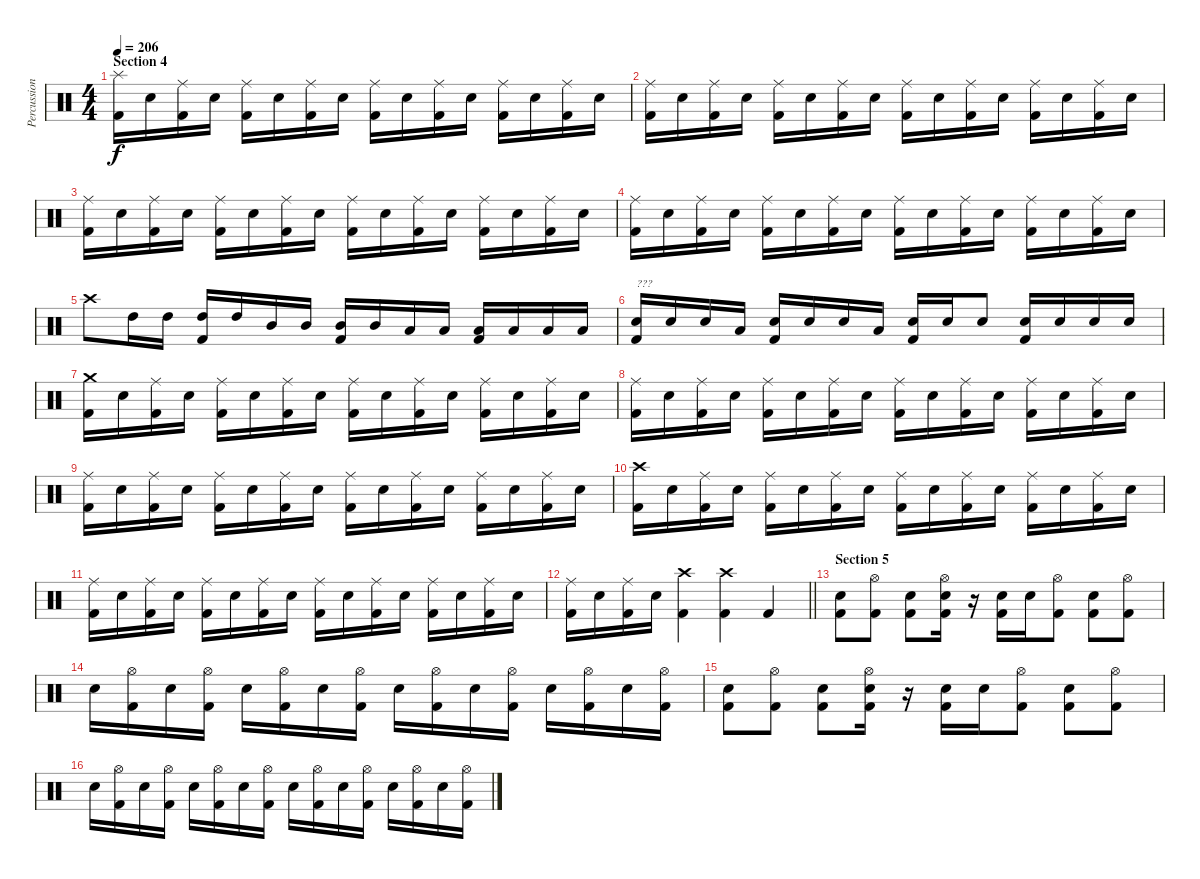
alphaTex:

\track ("Percussion" "Percussion") {instrument percussion}
\staff {score}
\articulation defaults
\ts (4 4)
\section ("" "Section 4")
\tempo 206
\clef neutral
\ks c
("Splash (hit)" "Kick (hit) 2").16{dy f} "Electric Snare (hit)".16 ("Ride (middle)" "Kick (hit) 2").16 "Electric Snare (hit)".16 ("Ride (middle)" "Kick (hit) 2").16 "Electric Snare (hit)".16 ("Ride (middle)" "Kick (hit) 2").16 "Electric Snare (hit)".16 ("Ride (middle)" "Kick (hit) 2").16 "Electric Snare (hit)".16 ("Ride (middle)" "Kick (hit) 2").16 "Electric Snare (hit)".16 ("Ride (middle)" "Kick (hit) 2").16 "Electric Snare (hit)".16 ("Ride (middle)" "Kick (hit) 2").16 "Electric Snare (hit)".16 |
("Ride (middle)" "Kick (hit) 2").16 "Electric Snare (hit)".16 ("Ride (middle)" "Kick (hit) 2").16 "Electric Snare (hit)".16 ("Ride (middle)" "Kick (hit) 2").16 "Electric Snare (hit)".16 ("Ride (middle)" "Kick (hit) 2").16 "Electric Snare (hit)".16 ("Ride (middle)" "Kick (hit) 2").16 "Electric Snare (hit)".16 ("Ride (middle)" "Kick (hit) 2").16 "Electric Snare (hit)".16 ("Ride (middle)" "Kick (hit) 2").16 "Electric Snare (hit)".16 ("Ride (middle)" "Kick (hit) 2").16 "Electric Snare (hit)".16 |
("Ride (middle)" "Kick (hit) 2").16 "Electric Snare (hit)".16 ("Ride (middle)" "Kick (hit) 2").16 "Electric Snare (hit)".16 ("Ride (middle)" "Kick (hit) 2").16 "Electric Snare (hit)".16 ("Ride (middle)" "Kick (hit) 2").16 "Electric Snare (hit)".16 ("Ride (middle)" "Kick (hit) 2").16 "Electric Snare (hit)".16 ("Ride (middle)" "Kick (hit) 2").16 "Electric Snare (hit)".16 ("Ride (middle)" "Kick (hit) 2").16 "Electric Snare (hit)".16 ("Ride (middle)" "Kick (hit) 2").16 "Electric Snare (hit)".16 |
("Ride (middle)" "Kick (hit) 2").16 "Electric Snare (hit)".16 ("Ride (middle)" "Kick (hit) 2").16 "Electric Snare (hit)".16 ("Ride (middle)" "Kick (hit) 2").16 "Electric Snare (hit)".16 ("Ride (middle)" "Kick (hit) 2").16 "Electric Snare (hit)".16 ("Ride (middle)" "Kick (hit) 2").16 "Electric Snare (hit)".16 ("Ride (middle)" "Kick (hit) 2").16 "Electric Snare (hit)".16 ("Ride (middle)" "Kick (hit) 2").16 "Electric Snare (hit)".16 ("Ride (middle)" "Kick (hit) 2").16 "Electric Snare (hit)".16 |
"Crash high (hit)".8 "High Tom (hit)".16 "High Tom (hit)".16 ("High Tom (hit)" "Kick (hit) 2").16 "High Tom (hit)".16 "Mid Tom (hit)".16 "Mid Tom (hit)".16 ("Mid Tom (hit)" "Kick (hit) 2").16 "Mid Tom (hit)".16 "Low Tom (hit)".16 "Low Tom (hit)".16 ("Low Tom (hit)" "Kick (hit) 2").16 "Low Tom (hit)".16 "Low Tom (hit)".16 "Low Tom (hit)".16 |
("Electric Snare (hit)" "Kick (hit) 2").16{txt "???"} "Electric Snare (hit)".16 "Electric Snare (hit)".16 "Low Tom (hit)".16 ("Electric Snare (hit)" "Kick (hit) 2").16 "Electric Snare (hit)".16 "Electric Snare (hit)".16 "Low Tom (hit)".16 ("Electric Snare (hit)" "Kick (hit) 2").16 "Electric Snare (hit)".16 "Electric Snare (hit)".8 ("Electric Snare (hit)" "Kick (hit) 2").16 "Electric Snare (hit)".16 "Electric Snare (hit)".16 "Electric Snare (hit)".16 |
("Crash medium (hit)" "Kick (hit) 2").16 "Electric Snare (hit)".16 ("Ride (middle)" "Kick (hit) 2").16 "Electric Snare (hit)".16 ("Ride (middle)" "Kick (hit) 2").16 "Electric Snare (hit)".16 ("Ride (middle)" "Kick (hit) 2").16 "Electric Snare (hit)".16 ("Ride (middle)" "Kick (hit) 2").16 "Electric Snare (hit)".16 ("Ride (middle)" "Kick (hit) 2").16 "Electric Snare (hit)".16 ("Ride (middle)" "Kick (hit) 2").16 "Electric Snare (hit)".16 ("Ride (middle)" "Kick (hit) 2").16 "Electric Snare (hit)".16 |
("Ride (middle)" "Kick (hit) 2").16 "Electric Snare (hit)".16 ("Ride (middle)" "Kick (hit) 2").16 "Electric Snare (hit)".16 ("Ride (middle)" "Kick (hit) 2").16 "Electric Snare (hit)".16 ("Ride (middle)" "Kick (hit) 2").16 "Electric Snare (hit)".16 ("Ride (middle)" "Kick (hit) 2").16 "Electric Snare (hit)".16 ("Ride (middle)" "Kick (hit) 2").16 "Electric Snare (hit)".16 ("Ride (middle)" "Kick (hit) 2").16 "Electric Snare (hit)".16 ("Ride (middle)" "Kick (hit) 2").16 "Electric Snare (hit)".16 |
("Ride (middle)" "Kick (hit) 2").16 "Electric Snare (hit)".16 ("Ride (middle)" "Kick (hit) 2").16 "Electric Snare (hit)".16 ("Ride (middle)" "Kick (hit) 2").16 "Electric Snare (hit)".16 ("Ride (middle)" "Kick (hit) 2").16 "Electric Snare (hit)".16 ("Ride (middle)" "Kick (hit) 2").16 "Electric Snare (hit)".16 ("Ride (middle)" "Kick (hit) 2").16 "Electric Snare (hit)".16 ("Ride (middle)" "Kick (hit) 2").16 "Electric Snare (hit)".16 ("Ride (middle)" "Kick (hit) 2").16 "Electric Snare (hit)".16 |
("Crash high (hit)" "Kick (hit) 2").16 "Electric Snare (hit)".16 ("Ride (middle)" "Kick (hit) 2").16 "Electric Snare (hit)".16 ("Ride (middle)" "Kick (hit) 2").16 "Electric Snare (hit)".16 ("Ride (middle)" "Kick (hit) 2").16 "Electric Snare (hit)".16 ("Ride (middle)" "Kick (hit) 2").16 "Electric Snare (hit)".16 ("Ride (middle)" "Kick (hit) 2").16 "Electric Snare (hit)".16 ("Ride (middle)" "Kick (hit) 2").16 "Electric Snare (hit)".16 ("Ride (middle)" "Kick (hit) 2").16 "Electric Snare (hit)".16 |
("Ride (middle)" "Kick (hit) 2").16 "Electric Snare (hit)".16 ("Ride (middle)" "Kick (hit) 2").16 "Electric Snare (hit)".16 ("Ride (middle)" "Kick (hit) 2").16 "Electric Snare (hit)".16 ("Ride (middle)" "Kick (hit) 2").16 "Electric Snare (hit)".16 ("Ride (middle)" "Kick (hit) 2").16 "Electric Snare (hit)".16 ("Ride (middle)" "Kick (hit) 2").16 "Electric Snare (hit)".16 ("Ride (middle)" "Kick (hit) 2").16 "Electric Snare (hit)".16 ("Ride (middle)" "Kick (hit) 2").16 "Electric Snare (hit)".16 |
\barLineRight lightlight
("Ride (middle)" "Kick (hit) 2").16 "Electric Snare (hit)".16 ("Ride (middle)" "Kick (hit) 2").16 "Electric Snare (hit)".16 ("Crash high (hit)" "Kick (hit) 2").4 ("Crash high (hit)" "Kick (hit) 2").4 "Kick (hit) 2".4 |
\section ("" "Section 5")
("Electric Snare (hit)" "Kick (hit) 2").8 ("Hi-Hat (open)" "Kick (hit) 2").8 ("Electric Snare (hit)" "Kick (hit) 2").8 ("Hi-Hat (open)" "Electric Snare (hit)" "Kick (hit) 2").16 r.16 ("Electric Snare (hit)" "Kick (hit) 2").16 "Electric Snare (hit)".16 ("Hi-Hat (open)" "Kick (hit) 2").8 ("Electric Snare (hit)" "Kick (hit) 2").8 ("Hi-Hat (open)" "Kick (hit) 2").8 |
"Electric Snare (hit)".16 ("Hi-Hat (open)" "Kick (hit) 2").16 "Electric Snare (hit)".16 ("Hi-Hat (open)" "Kick (hit) 2").16 "Electric Snare (hit)".16 ("Hi-Hat (open)" "Kick (hit) 2").16 "Electric Snare (hit)".16 ("Hi-Hat (open)" "Kick (hit) 2").16 "Electric Snare (hit)".16 ("Hi-Hat (open)" "Kick (hit) 2").16 "Electric Snare (hit)".16 ("Hi-Hat (open)" "Kick (hit) 2").16 "Electric Snare (hit)".16 ("Hi-Hat (open)" "Kick (hit) 2").16 "Electric Snare (hit)".16 ("Hi-Hat (open)" "Kick (hit) 2").16 |
("Electric Snare (hit)" "Kick (hit) 2").8 ("Hi-Hat (open)" "Kick (hit) 2").8 ("Electric Snare (hit)" "Kick (hit) 2").8 ("Hi-Hat (open)" "Electric Snare (hit)" "Kick (hit) 2").16 r.16 ("Electric Snare (hit)" "Kick (hit) 2").16 "Electric Snare (hit)".16 ("Hi-Hat (open)" "Kick (hit) 2").8 ("Electric Snare (hit)" "Kick (hit) 2").8 ("Hi-Hat (open)" "Kick (hit) 2").8 |
"Electric Snare (hit)".16 ("Hi-Hat (open)" "Kick (hit) 2").16 "Electric Snare (hit)".16 ("Hi-Hat (open)" "Kick (hit) 2").16 "Electric Snare (hit)".16 ("Hi-Hat (open)" "Kick (hit) 2").16 "Electric Snare (hit)".16 ("Hi-Hat (open)" "Kick (hit) 2").16 "Electric Snare (hit)".16 ("Hi-Hat (open)" "Kick (hit) 2").16 "Electric Snare (hit)".16 ("Hi-Hat (open)" "Kick (hit) 2").16 "Electric Snare (hit)".16 ("Hi-Hat (open)" "Kick (hit) 2").16 "Electric Snare (hit)".16 ("Hi-Hat (open)" "Kick (hit) 2").16
